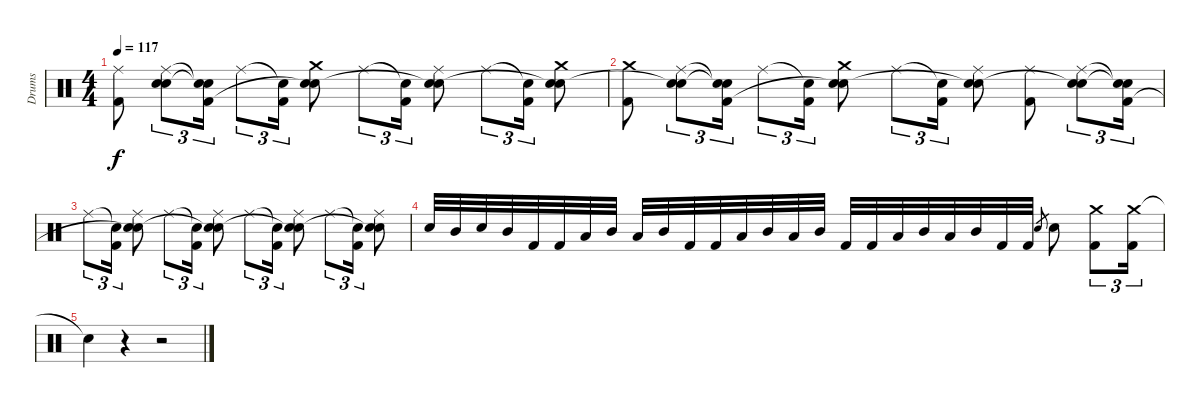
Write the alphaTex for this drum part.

\track ("Drums" "Drums") {instrument percussion}
\staff {score}
\articulation defaults
\ts (4 4)
\tempo 117
\clef neutral
\ks aminor
("Ride (middle)" "Kick (hit) 2").8{dy f} ("Ride (middle)" "Electric Snare (hit)" "Snare (hit)"{t}).8{tu (3 2)} ("Snare (hit)"{t} "Snare (hit)"{t} "Kick (hit) 2").16{tu (3 2)} "Ride (middle)".8{tu (3 2)} ("Snare (hit)"{t} "Kick (hit) 2").16{tu (3 2)} ("Crash medium (hit)" "Electric Snare (hit)" "Snare (hit)"{t}).8 "Ride (middle)".8{tu (3 2)} ("Snare (hit)"{t} "Kick (hit) 2").16{tu (3 2)} ("Ride (middle)" "Electric Snare (hit)" "Snare (hit)"{t}).8 "Ride (middle)".8{tu (3 2)} ("Snare (hit)"{t} "Kick (hit) 2").16{tu (3 2)} ("Crash medium (hit)" "Electric Snare (hit)" "Snare (hit)"{t}).8 |
("Crash medium (hit)" "Kick (hit) 2").8 ("Ride (middle)" "Electric Snare (hit)" "Snare (hit)"{t}).8{tu (3 2)} ("Snare (hit)"{t} "Snare (hit)"{t} "Kick (hit) 2").16{tu (3 2)} "Ride (middle)".8{tu (3 2)} ("Snare (hit)"{t} "Kick (hit) 2").16{tu (3 2)} ("Crash medium (hit)" "Electric Snare (hit)" "Snare (hit)"{t}).8 "Ride (middle)".8{tu (3 2)} ("Snare (hit)"{t} "Kick (hit) 2").16{tu (3 2)} ("Ride (middle)" "Electric Snare (hit)" "Snare (hit)"{t}).8 ("Ride (middle)" "Kick (hit) 2").8 ("Ride (middle)" "Electric Snare (hit)" "Snare (hit)"{t}).8{tu (3 2)} ("Snare (hit)"{t} "Snare (hit)"{t} "Kick (hit) 2").16{tu (3 2)} |
"Ride (middle)".8{tu (3 2)} ("Snare (hit)"{t} "Kick (hit) 2").16{tu (3 2)} ("Ride (middle)" "Electric Snare (hit)" "Snare (hit)"{t}).8 "Ride (middle)".8{tu (3 2)} ("Snare (hit)"{t} "Kick (hit) 2").16{tu (3 2)} ("Ride (middle)" "Electric Snare (hit)" "Snare (hit)"{t}).8 "Ride (middle)".8{tu (3 2)} ("Snare (hit)"{t} "Kick (hit) 2").16{tu (3 2)} ("Ride (middle)" "Electric Snare (hit)" "Snare (hit)"{t}).8 "Ride (middle)".8{tu (3 2)} ("Snare (hit)"{t} "Kick (hit) 2").16{tu (3 2)} ("Ride (middle)" "Electric Snare (hit)" "Snare (hit)"{t}).8 |
"Electric Snare (hit)".32 "Mid Tom (hit)".32 "Electric Snare (hit)".32 "Mid Tom (hit)".32 "Kick (hit) 2".32 "Kick (hit) 2".32 "Low Floor Tom (hit)".32 "Mid Tom (hit)".32 "Low Floor Tom (hit)".32 "Mid Tom (hit)".32 "Kick (hit) 2".32 "Kick (hit) 2".32 "Low Floor Tom (hit)".32 "Mid Tom (hit)".32 "Low Floor Tom (hit)".32 "Mid Tom (hit)".32 "Kick (hit) 2".32 "Kick (hit) 2".32 "Low Floor Tom (hit)".32 "Mid Tom (hit)".32 "Low Floor Tom (hit)".32 "Mid Tom (hit)".32 "Kick (hit) 2".32 "Kick (hit) 2".32 "Electric Snare (hit)".8{gr} "Electric Snare (hit)".8 ("Crash medium (hit)" "Kick (hit) 2").8{tu (3 2)} ("Crash medium (hit)" "Kick (hit) 2").16{tu (3 2)} |
"Snare (hit)"{t}.4 r.4 r.2
